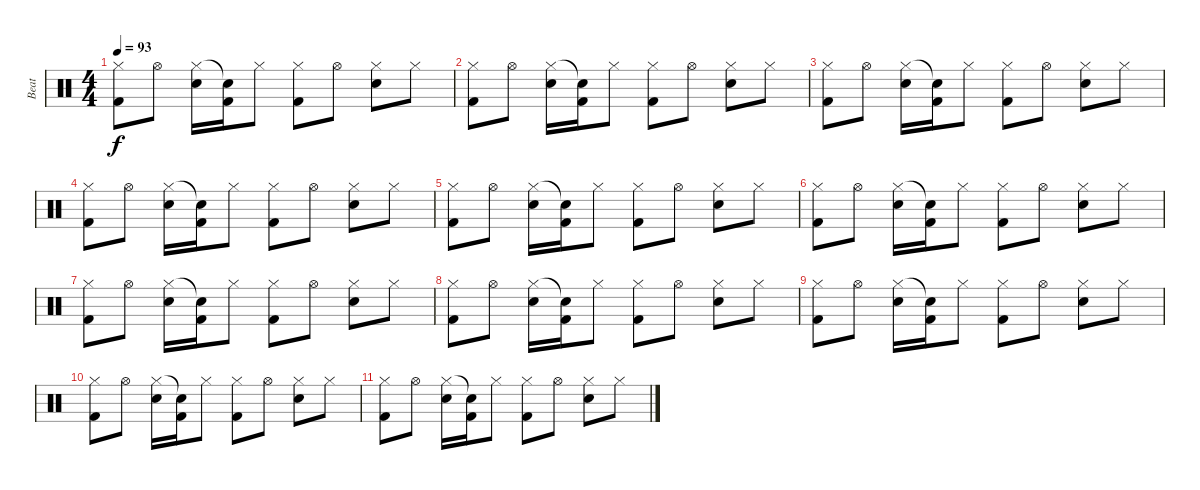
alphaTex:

\track ("Beat" "Beat") {instrument percussion}
\staff {score}
\articulation defaults
\ts (4 4)
\tempo 93
\clef neutral
\ks c
("Hi-Hat (closed)" "Kick (hit) 2").8{dy f} "Hi-Hat (open)".8 ("Hi-Hat (closed)" "Snare (hit) 2").16 ("Snare (hit)"{t} "Kick (hit) 2").16 "Hi-Hat (closed)".8 ("Hi-Hat (closed)" "Kick (hit) 2").8 "Hi-Hat (open)".8 ("Hi-Hat (closed)" "Snare (hit) 2").8 "Hi-Hat (closed)".8 |
("Hi-Hat (closed)" "Kick (hit) 2").8 "Hi-Hat (open)".8 ("Hi-Hat (closed)" "Snare (hit) 2").16 ("Snare (hit)"{t} "Kick (hit) 2").16 "Hi-Hat (closed)".8 ("Hi-Hat (closed)" "Kick (hit) 2").8 "Hi-Hat (open)".8 ("Hi-Hat (closed)" "Snare (hit) 2").8 "Hi-Hat (closed)".8 |
("Hi-Hat (closed)" "Kick (hit) 2").8 "Hi-Hat (open)".8 ("Hi-Hat (closed)" "Snare (hit) 2").16 ("Snare (hit)"{t} "Kick (hit) 2").16 "Hi-Hat (closed)".8 ("Hi-Hat (closed)" "Kick (hit) 2").8 "Hi-Hat (open)".8 ("Hi-Hat (closed)" "Snare (hit) 2").8 "Hi-Hat (closed)".8 |
("Hi-Hat (closed)" "Kick (hit) 2").8 "Hi-Hat (open)".8 ("Hi-Hat (closed)" "Snare (hit) 2").16 ("Snare (hit)"{t} "Kick (hit) 2").16 "Hi-Hat (closed)".8 ("Hi-Hat (closed)" "Kick (hit) 2").8 "Hi-Hat (open)".8 ("Hi-Hat (closed)" "Snare (hit) 2").8 "Hi-Hat (closed)".8 |
("Hi-Hat (closed)" "Kick (hit) 2").8 "Hi-Hat (open)".8 ("Hi-Hat (closed)" "Snare (hit) 2").16 ("Snare (hit)"{t} "Kick (hit) 2").16 "Hi-Hat (closed)".8 ("Hi-Hat (closed)" "Kick (hit) 2").8 "Hi-Hat (open)".8 ("Hi-Hat (closed)" "Snare (hit) 2").8 "Hi-Hat (closed)".8 |
("Hi-Hat (closed)" "Kick (hit) 2").8 "Hi-Hat (open)".8 ("Hi-Hat (closed)" "Snare (hit) 2").16 ("Snare (hit)"{t} "Kick (hit) 2").16 "Hi-Hat (closed)".8 ("Hi-Hat (closed)" "Kick (hit) 2").8 "Hi-Hat (open)".8 ("Hi-Hat (closed)" "Snare (hit) 2").8 "Hi-Hat (closed)".8 |
("Hi-Hat (closed)" "Kick (hit) 2").8 "Hi-Hat (open)".8 ("Hi-Hat (closed)" "Snare (hit) 2").16 ("Snare (hit)"{t} "Kick (hit) 2").16 "Hi-Hat (closed)".8 ("Hi-Hat (closed)" "Kick (hit) 2").8 "Hi-Hat (open)".8 ("Hi-Hat (closed)" "Snare (hit) 2").8 "Hi-Hat (closed)".8 |
("Hi-Hat (closed)" "Kick (hit) 2").8 "Hi-Hat (open)".8 ("Hi-Hat (closed)" "Snare (hit) 2").16 ("Snare (hit)"{t} "Kick (hit) 2").16 "Hi-Hat (closed)".8 ("Hi-Hat (closed)" "Kick (hit) 2").8 "Hi-Hat (open)".8 ("Hi-Hat (closed)" "Snare (hit) 2").8 "Hi-Hat (closed)".8 |
("Hi-Hat (closed)" "Kick (hit) 2").8 "Hi-Hat (open)".8 ("Hi-Hat (closed)" "Snare (hit) 2").16 ("Snare (hit)"{t} "Kick (hit) 2").16 "Hi-Hat (closed)".8 ("Hi-Hat (closed)" "Kick (hit) 2").8 "Hi-Hat (open)".8 ("Hi-Hat (closed)" "Snare (hit) 2").8 "Hi-Hat (closed)".8 |
("Hi-Hat (closed)" "Kick (hit) 2").8 "Hi-Hat (open)".8 ("Hi-Hat (closed)" "Snare (hit) 2").16 ("Snare (hit)"{t} "Kick (hit) 2").16 "Hi-Hat (closed)".8 ("Hi-Hat (closed)" "Kick (hit) 2").8 "Hi-Hat (open)".8 ("Hi-Hat (closed)" "Snare (hit) 2").8 "Hi-Hat (closed)".8 |
("Hi-Hat (closed)" "Kick (hit) 2").8 "Hi-Hat (open)".8 ("Hi-Hat (closed)" "Snare (hit) 2").16 ("Snare (hit)"{t} "Kick (hit) 2").16 "Hi-Hat (closed)".8 ("Hi-Hat (closed)" "Kick (hit) 2").8 "Hi-Hat (open)".8 ("Hi-Hat (closed)" "Snare (hit) 2").8 "Hi-Hat (closed)".8
